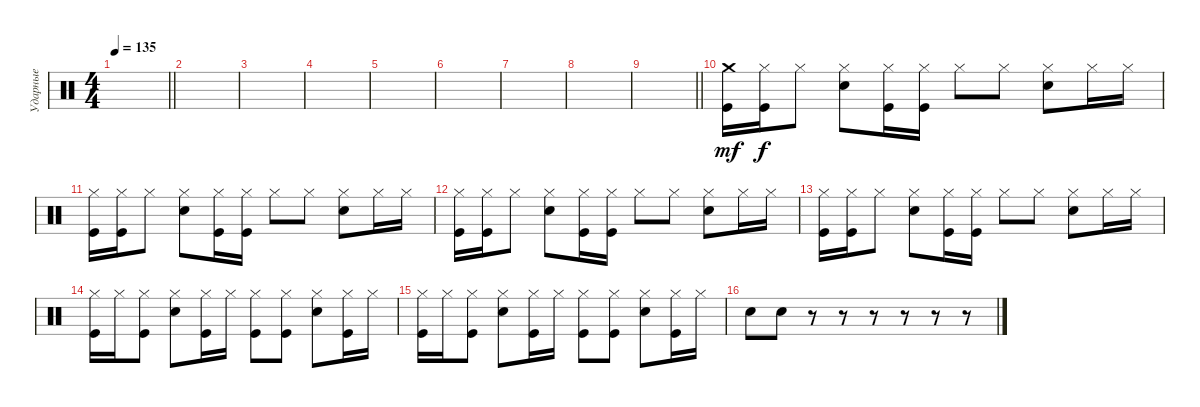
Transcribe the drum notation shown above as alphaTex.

\track ("Ударные" "Ударные") {instrument percussion}
\staff {score}
\articulation defaults
\ts (4 4)
\tempo 135
\clef neutral
\barLineRight lightlight
\ks c
|
\section ("" " ")
|
|
|
|
|
|
|
\barLineRight lightlight
|
\section ("" " ")
("Crash medium (hit)" "Kick (hit)").16{dy mf} ("Hi-Hat (closed)" "Kick (hit)").16{dy f} "Hi-Hat (closed)".8 ("Hi-Hat (closed)" "Electric Snare (hit)").8 ("Hi-Hat (closed)" "Kick (hit)").16 ("Hi-Hat (closed)" "Kick (hit)").16 "Hi-Hat (closed)".8 "Hi-Hat (closed)".8 ("Hi-Hat (closed)" "Electric Snare (hit)").8 "Hi-Hat (closed)".16 "Hi-Hat (closed)".16 |
("Hi-Hat (closed)" "Kick (hit)").16 ("Hi-Hat (closed)" "Kick (hit)").16 "Hi-Hat (closed)".8 ("Hi-Hat (closed)" "Electric Snare (hit)").8 ("Hi-Hat (closed)" "Kick (hit)").16 ("Hi-Hat (closed)" "Kick (hit)").16 "Hi-Hat (closed)".8 "Hi-Hat (closed)".8 ("Hi-Hat (closed)" "Electric Snare (hit)").8 "Hi-Hat (closed)".16 "Hi-Hat (closed)".16 |
("Hi-Hat (closed)" "Kick (hit)").16 ("Hi-Hat (closed)" "Kick (hit)").16 "Hi-Hat (closed)".8 ("Hi-Hat (closed)" "Electric Snare (hit)").8 ("Hi-Hat (closed)" "Kick (hit)").16 ("Hi-Hat (closed)" "Kick (hit)").16 "Hi-Hat (closed)".8 "Hi-Hat (closed)".8 ("Hi-Hat (closed)" "Electric Snare (hit)").8 "Hi-Hat (closed)".16 "Hi-Hat (closed)".16 |
("Hi-Hat (closed)" "Kick (hit)").16 ("Hi-Hat (closed)" "Kick (hit)").16 "Hi-Hat (closed)".8 ("Hi-Hat (closed)" "Electric Snare (hit)").8 ("Hi-Hat (closed)" "Kick (hit)").16 ("Hi-Hat (closed)" "Kick (hit)").16 "Hi-Hat (closed)".8 "Hi-Hat (closed)".8 ("Hi-Hat (closed)" "Electric Snare (hit)").8 "Hi-Hat (closed)".16 "Hi-Hat (closed)".16 |
("Hi-Hat (closed)" "Kick (hit)").16 "Hi-Hat (closed)".16 ("Hi-Hat (closed)" "Kick (hit)").8 ("Hi-Hat (closed)" "Electric Snare (hit)").8 ("Hi-Hat (closed)" "Kick (hit)").16 "Hi-Hat (closed)".16 ("Hi-Hat (closed)" "Kick (hit)").8 ("Hi-Hat (closed)" "Kick (hit)").8 ("Hi-Hat (closed)" "Electric Snare (hit)").8 ("Hi-Hat (closed)" "Kick (hit)").16 "Hi-Hat (closed)".16 |
("Hi-Hat (closed)" "Kick (hit)").16 "Hi-Hat (closed)".16 ("Hi-Hat (closed)" "Kick (hit)").8 ("Hi-Hat (closed)" "Electric Snare (hit)").8 ("Hi-Hat (closed)" "Kick (hit)").16 "Hi-Hat (closed)".16 ("Hi-Hat (closed)" "Kick (hit)").8 ("Hi-Hat (closed)" "Kick (hit)").8 ("Hi-Hat (closed)" "Electric Snare (hit)").8 ("Hi-Hat (closed)" "Kick (hit)").16 "Hi-Hat (closed)".16 |
"Electric Snare (hit)".8 "Electric Snare (hit)".8 r.8 r.8 r.8 r.8 r.8 r.8
